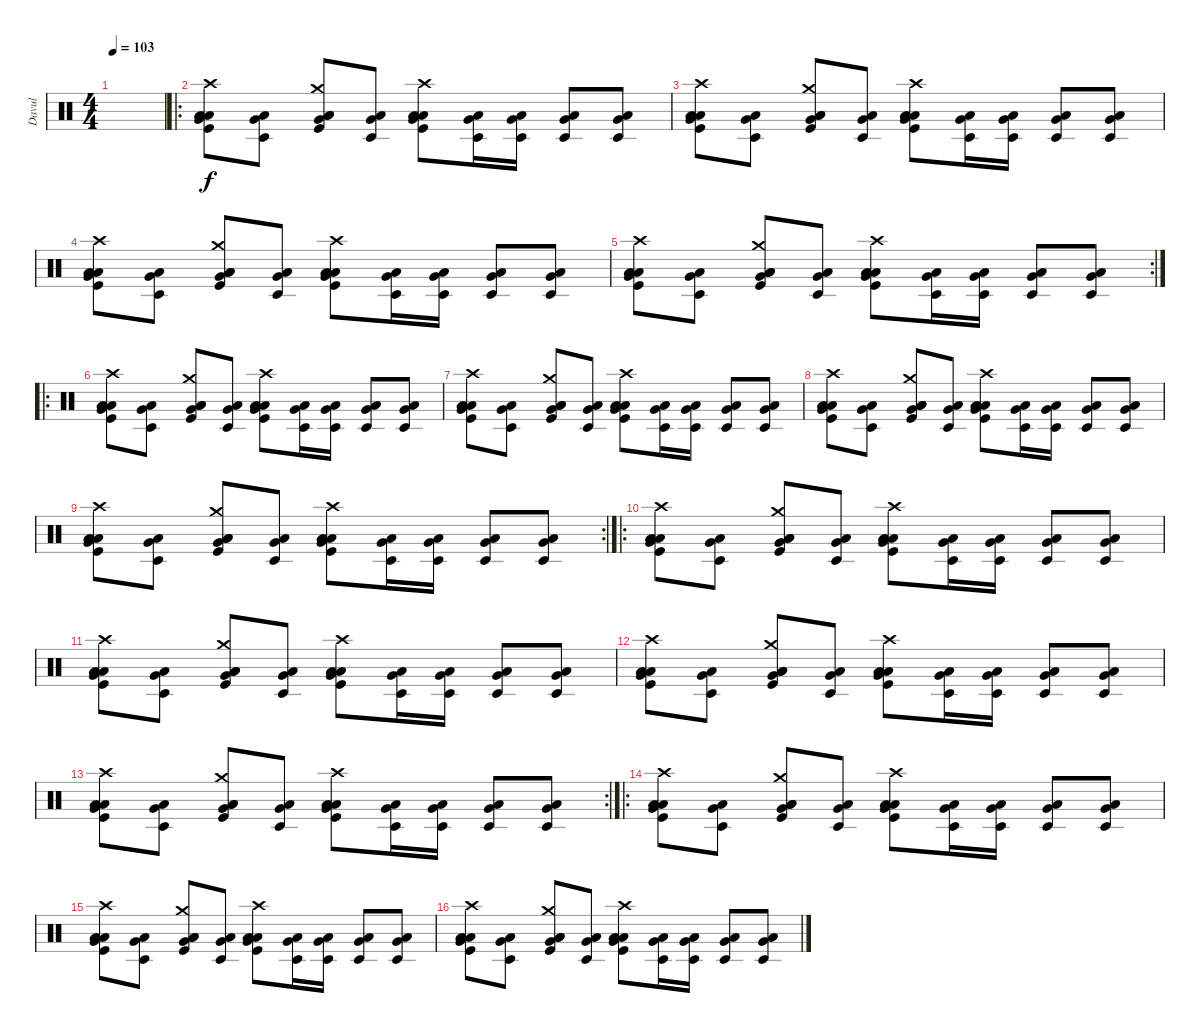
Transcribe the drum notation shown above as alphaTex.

\track ("Davul" "Davul") {instrument percussion}
\staff {score}
\articulation defaults
\ts (4 4)
\tempo 103
\clef neutral
\ks c
|
\ro
("Kick (hit)" "Low Tom (hit)" "Low Floor Tom (hit)" "Very Low Tom (hit)" "Crash high (hit)").8 ("Low Floor Tom (hit)" "Timbale low (hit)" "Very Low Tom (hit)").8 ("Kick (hit)" "Low Tom (hit)" "Low Floor Tom (hit)" "Very Low Tom (hit)" "Crash medium (hit)").8 ("Low Floor Tom (hit)" "Timbale low (hit)" "Very Low Tom (hit)").8 ("Kick (hit)" "Low Tom (hit)" "Low Floor Tom (hit)" "Very Low Tom (hit)" "Crash high (hit)").8 ("Low Floor Tom (hit)" "Timbale low (hit)" "Very Low Tom (hit)").16 ("Low Floor Tom (hit)" "Timbale low (hit)" "Very Low Tom (hit)").16 ("Low Floor Tom (hit)" "Timbale low (hit)" "Very Low Tom (hit)").8 ("Low Floor Tom (hit)" "Timbale low (hit)" "Very Low Tom (hit)").8 |
("Kick (hit)" "Low Tom (hit)" "Low Floor Tom (hit)" "Very Low Tom (hit)" "Crash high (hit)").8 ("Low Floor Tom (hit)" "Timbale low (hit)" "Very Low Tom (hit)").8 ("Kick (hit)" "Low Tom (hit)" "Low Floor Tom (hit)" "Very Low Tom (hit)" "Crash medium (hit)").8 ("Low Floor Tom (hit)" "Timbale low (hit)" "Very Low Tom (hit)").8 ("Kick (hit)" "Low Tom (hit)" "Low Floor Tom (hit)" "Very Low Tom (hit)" "Crash high (hit)").8 ("Low Floor Tom (hit)" "Timbale low (hit)" "Very Low Tom (hit)").16 ("Low Floor Tom (hit)" "Timbale low (hit)" "Very Low Tom (hit)").16 ("Low Floor Tom (hit)" "Timbale low (hit)" "Very Low Tom (hit)").8 ("Low Floor Tom (hit)" "Timbale low (hit)" "Very Low Tom (hit)").8 |
("Kick (hit)" "Low Tom (hit)" "Low Floor Tom (hit)" "Very Low Tom (hit)" "Crash high (hit)").8 ("Low Floor Tom (hit)" "Timbale low (hit)" "Very Low Tom (hit)").8 ("Kick (hit)" "Low Tom (hit)" "Low Floor Tom (hit)" "Very Low Tom (hit)" "Crash medium (hit)").8 ("Low Floor Tom (hit)" "Timbale low (hit)" "Very Low Tom (hit)").8 ("Kick (hit)" "Low Tom (hit)" "Low Floor Tom (hit)" "Very Low Tom (hit)" "Crash high (hit)").8 ("Low Floor Tom (hit)" "Timbale low (hit)" "Very Low Tom (hit)").16 ("Low Floor Tom (hit)" "Timbale low (hit)" "Very Low Tom (hit)").16 ("Low Floor Tom (hit)" "Timbale low (hit)" "Very Low Tom (hit)").8 ("Low Floor Tom (hit)" "Timbale low (hit)" "Very Low Tom (hit)").8 |
\rc 2
("Kick (hit)" "Low Tom (hit)" "Low Floor Tom (hit)" "Very Low Tom (hit)" "Crash high (hit)").8 ("Low Floor Tom (hit)" "Timbale low (hit)" "Very Low Tom (hit)").8 ("Kick (hit)" "Low Tom (hit)" "Low Floor Tom (hit)" "Very Low Tom (hit)" "Crash medium (hit)").8 ("Low Floor Tom (hit)" "Timbale low (hit)" "Very Low Tom (hit)").8 ("Kick (hit)" "Low Tom (hit)" "Low Floor Tom (hit)" "Very Low Tom (hit)" "Crash high (hit)").8 ("Low Floor Tom (hit)" "Timbale low (hit)" "Very Low Tom (hit)").16 ("Low Floor Tom (hit)" "Timbale low (hit)" "Very Low Tom (hit)").16 ("Low Floor Tom (hit)" "Timbale low (hit)" "Very Low Tom (hit)").8 ("Low Floor Tom (hit)" "Timbale low (hit)" "Very Low Tom (hit)").8 |
\ro
("Kick (hit)" "Low Tom (hit)" "Low Floor Tom (hit)" "Very Low Tom (hit)" "Crash high (hit)").8 ("Low Floor Tom (hit)" "Timbale low (hit)" "Very Low Tom (hit)").8 ("Kick (hit)" "Low Tom (hit)" "Low Floor Tom (hit)" "Very Low Tom (hit)" "Crash medium (hit)").8 ("Low Floor Tom (hit)" "Timbale low (hit)" "Very Low Tom (hit)").8 ("Kick (hit)" "Low Tom (hit)" "Low Floor Tom (hit)" "Very Low Tom (hit)" "Crash high (hit)").8 ("Low Floor Tom (hit)" "Timbale low (hit)" "Very Low Tom (hit)").16 ("Low Floor Tom (hit)" "Timbale low (hit)" "Very Low Tom (hit)").16 ("Low Floor Tom (hit)" "Timbale low (hit)" "Very Low Tom (hit)").8 ("Low Floor Tom (hit)" "Timbale low (hit)" "Very Low Tom (hit)").8 |
("Kick (hit)" "Low Tom (hit)" "Low Floor Tom (hit)" "Very Low Tom (hit)" "Crash high (hit)").8 ("Low Floor Tom (hit)" "Timbale low (hit)" "Very Low Tom (hit)").8 ("Kick (hit)" "Low Tom (hit)" "Low Floor Tom (hit)" "Very Low Tom (hit)" "Crash medium (hit)").8 ("Low Floor Tom (hit)" "Timbale low (hit)" "Very Low Tom (hit)").8 ("Kick (hit)" "Low Tom (hit)" "Low Floor Tom (hit)" "Very Low Tom (hit)" "Crash high (hit)").8 ("Low Floor Tom (hit)" "Timbale low (hit)" "Very Low Tom (hit)").16 ("Low Floor Tom (hit)" "Timbale low (hit)" "Very Low Tom (hit)").16 ("Low Floor Tom (hit)" "Timbale low (hit)" "Very Low Tom (hit)").8 ("Low Floor Tom (hit)" "Timbale low (hit)" "Very Low Tom (hit)").8 |
("Kick (hit)" "Low Tom (hit)" "Low Floor Tom (hit)" "Very Low Tom (hit)" "Crash high (hit)").8 ("Low Floor Tom (hit)" "Timbale low (hit)" "Very Low Tom (hit)").8 ("Kick (hit)" "Low Tom (hit)" "Low Floor Tom (hit)" "Very Low Tom (hit)" "Crash medium (hit)").8 ("Low Floor Tom (hit)" "Timbale low (hit)" "Very Low Tom (hit)").8 ("Kick (hit)" "Low Tom (hit)" "Low Floor Tom (hit)" "Very Low Tom (hit)" "Crash high (hit)").8 ("Low Floor Tom (hit)" "Timbale low (hit)" "Very Low Tom (hit)").16 ("Low Floor Tom (hit)" "Timbale low (hit)" "Very Low Tom (hit)").16 ("Low Floor Tom (hit)" "Timbale low (hit)" "Very Low Tom (hit)").8 ("Low Floor Tom (hit)" "Timbale low (hit)" "Very Low Tom (hit)").8 |
\rc 2
("Kick (hit)" "Low Tom (hit)" "Low Floor Tom (hit)" "Very Low Tom (hit)" "Crash high (hit)").8 ("Low Floor Tom (hit)" "Timbale low (hit)" "Very Low Tom (hit)").8 ("Kick (hit)" "Low Tom (hit)" "Low Floor Tom (hit)" "Very Low Tom (hit)" "Crash medium (hit)").8 ("Low Floor Tom (hit)" "Timbale low (hit)" "Very Low Tom (hit)").8 ("Kick (hit)" "Low Tom (hit)" "Low Floor Tom (hit)" "Very Low Tom (hit)" "Crash high (hit)").8 ("Low Floor Tom (hit)" "Timbale low (hit)" "Very Low Tom (hit)").16 ("Low Floor Tom (hit)" "Timbale low (hit)" "Very Low Tom (hit)").16 ("Low Floor Tom (hit)" "Timbale low (hit)" "Very Low Tom (hit)").8 ("Low Floor Tom (hit)" "Timbale low (hit)" "Very Low Tom (hit)").8 |
\ro
("Kick (hit)" "Low Tom (hit)" "Low Floor Tom (hit)" "Very Low Tom (hit)" "Crash high (hit)").8 ("Low Floor Tom (hit)" "Timbale low (hit)" "Very Low Tom (hit)").8 ("Kick (hit)" "Low Tom (hit)" "Low Floor Tom (hit)" "Very Low Tom (hit)" "Crash medium (hit)").8 ("Low Floor Tom (hit)" "Timbale low (hit)" "Very Low Tom (hit)").8 ("Kick (hit)" "Low Tom (hit)" "Low Floor Tom (hit)" "Very Low Tom (hit)" "Crash high (hit)").8 ("Low Floor Tom (hit)" "Timbale low (hit)" "Very Low Tom (hit)").16 ("Low Floor Tom (hit)" "Timbale low (hit)" "Very Low Tom (hit)").16 ("Low Floor Tom (hit)" "Timbale low (hit)" "Very Low Tom (hit)").8 ("Low Floor Tom (hit)" "Timbale low (hit)" "Very Low Tom (hit)").8 |
("Kick (hit)" "Low Tom (hit)" "Low Floor Tom (hit)" "Very Low Tom (hit)" "Crash high (hit)").8 ("Low Floor Tom (hit)" "Timbale low (hit)" "Very Low Tom (hit)").8 ("Kick (hit)" "Low Tom (hit)" "Low Floor Tom (hit)" "Very Low Tom (hit)" "Crash medium (hit)").8 ("Low Floor Tom (hit)" "Timbale low (hit)" "Very Low Tom (hit)").8 ("Kick (hit)" "Low Tom (hit)" "Low Floor Tom (hit)" "Very Low Tom (hit)" "Crash high (hit)").8 ("Low Floor Tom (hit)" "Timbale low (hit)" "Very Low Tom (hit)").16 ("Low Floor Tom (hit)" "Timbale low (hit)" "Very Low Tom (hit)").16 ("Low Floor Tom (hit)" "Timbale low (hit)" "Very Low Tom (hit)").8 ("Low Floor Tom (hit)" "Timbale low (hit)" "Very Low Tom (hit)").8 |
("Kick (hit)" "Low Tom (hit)" "Low Floor Tom (hit)" "Very Low Tom (hit)" "Crash high (hit)").8 ("Low Floor Tom (hit)" "Timbale low (hit)" "Very Low Tom (hit)").8 ("Kick (hit)" "Low Tom (hit)" "Low Floor Tom (hit)" "Very Low Tom (hit)" "Crash medium (hit)").8 ("Low Floor Tom (hit)" "Timbale low (hit)" "Very Low Tom (hit)").8 ("Kick (hit)" "Low Tom (hit)" "Low Floor Tom (hit)" "Very Low Tom (hit)" "Crash high (hit)").8 ("Low Floor Tom (hit)" "Timbale low (hit)" "Very Low Tom (hit)").16 ("Low Floor Tom (hit)" "Timbale low (hit)" "Very Low Tom (hit)").16 ("Low Floor Tom (hit)" "Timbale low (hit)" "Very Low Tom (hit)").8 ("Low Floor Tom (hit)" "Timbale low (hit)" "Very Low Tom (hit)").8 |
\rc 2
("Kick (hit)" "Low Tom (hit)" "Low Floor Tom (hit)" "Very Low Tom (hit)" "Crash high (hit)").8 ("Low Floor Tom (hit)" "Timbale low (hit)" "Very Low Tom (hit)").8 ("Kick (hit)" "Low Tom (hit)" "Low Floor Tom (hit)" "Very Low Tom (hit)" "Crash medium (hit)").8 ("Low Floor Tom (hit)" "Timbale low (hit)" "Very Low Tom (hit)").8 ("Kick (hit)" "Low Tom (hit)" "Low Floor Tom (hit)" "Very Low Tom (hit)" "Crash high (hit)").8 ("Low Floor Tom (hit)" "Timbale low (hit)" "Very Low Tom (hit)").16 ("Low Floor Tom (hit)" "Timbale low (hit)" "Very Low Tom (hit)").16 ("Low Floor Tom (hit)" "Timbale low (hit)" "Very Low Tom (hit)").8 ("Low Floor Tom (hit)" "Timbale low (hit)" "Very Low Tom (hit)").8 |
\ro
("Kick (hit)" "Low Tom (hit)" "Low Floor Tom (hit)" "Very Low Tom (hit)" "Crash high (hit)").8 ("Low Floor Tom (hit)" "Timbale low (hit)" "Very Low Tom (hit)").8 ("Kick (hit)" "Low Tom (hit)" "Low Floor Tom (hit)" "Very Low Tom (hit)" "Crash medium (hit)").8 ("Low Floor Tom (hit)" "Timbale low (hit)" "Very Low Tom (hit)").8 ("Kick (hit)" "Low Tom (hit)" "Low Floor Tom (hit)" "Very Low Tom (hit)" "Crash high (hit)").8 ("Low Floor Tom (hit)" "Timbale low (hit)" "Very Low Tom (hit)").16 ("Low Floor Tom (hit)" "Timbale low (hit)" "Very Low Tom (hit)").16 ("Low Floor Tom (hit)" "Timbale low (hit)" "Very Low Tom (hit)").8 ("Low Floor Tom (hit)" "Timbale low (hit)" "Very Low Tom (hit)").8 |
("Kick (hit)" "Low Tom (hit)" "Low Floor Tom (hit)" "Very Low Tom (hit)" "Crash high (hit)").8 ("Low Floor Tom (hit)" "Timbale low (hit)" "Very Low Tom (hit)").8 ("Kick (hit)" "Low Tom (hit)" "Low Floor Tom (hit)" "Very Low Tom (hit)" "Crash medium (hit)").8 ("Low Floor Tom (hit)" "Timbale low (hit)" "Very Low Tom (hit)").8 ("Kick (hit)" "Low Tom (hit)" "Low Floor Tom (hit)" "Very Low Tom (hit)" "Crash high (hit)").8 ("Low Floor Tom (hit)" "Timbale low (hit)" "Very Low Tom (hit)").16 ("Low Floor Tom (hit)" "Timbale low (hit)" "Very Low Tom (hit)").16 ("Low Floor Tom (hit)" "Timbale low (hit)" "Very Low Tom (hit)").8 ("Low Floor Tom (hit)" "Timbale low (hit)" "Very Low Tom (hit)").8 |
("Kick (hit)" "Low Tom (hit)" "Low Floor Tom (hit)" "Very Low Tom (hit)" "Crash high (hit)").8 ("Low Floor Tom (hit)" "Timbale low (hit)" "Very Low Tom (hit)").8 ("Kick (hit)" "Low Tom (hit)" "Low Floor Tom (hit)" "Very Low Tom (hit)" "Crash medium (hit)").8 ("Low Floor Tom (hit)" "Timbale low (hit)" "Very Low Tom (hit)").8 ("Kick (hit)" "Low Tom (hit)" "Low Floor Tom (hit)" "Very Low Tom (hit)" "Crash high (hit)").8 ("Low Floor Tom (hit)" "Timbale low (hit)" "Very Low Tom (hit)").16 ("Low Floor Tom (hit)" "Timbale low (hit)" "Very Low Tom (hit)").16 ("Low Floor Tom (hit)" "Timbale low (hit)" "Very Low Tom (hit)").8 ("Low Floor Tom (hit)" "Timbale low (hit)" "Very Low Tom (hit)").8
